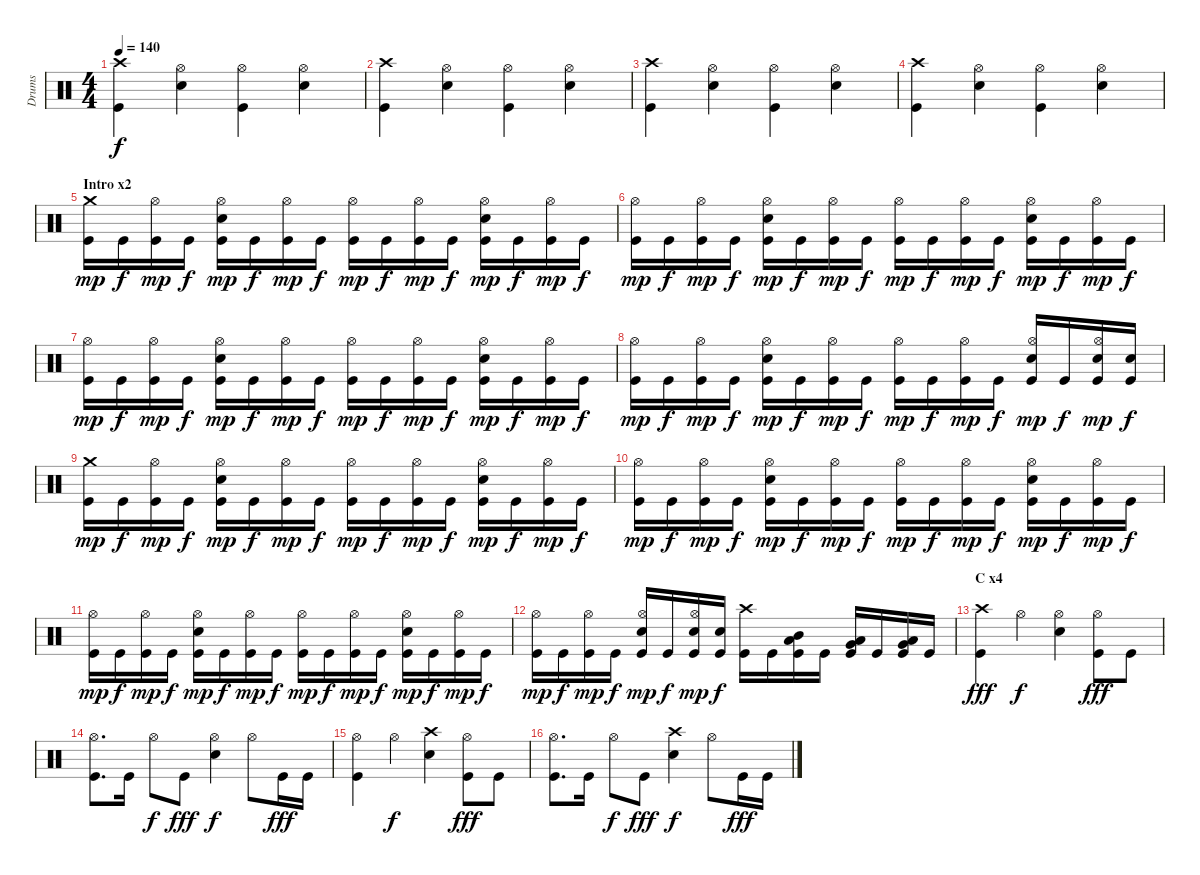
\track ("Drums" "Drums") {instrument percussion}
\staff {score}
\articulation defaults
\ts (4 4)
\tempo 140
\clef neutral
\ks c
("Crash high (hit)" "Kick (hit)").4{dy f} ("Hi-Hat (open)" "Snare (hit) 2").4 ("Hi-Hat (open)" "Kick (hit)").4 ("Hi-Hat (open)" "Snare (hit) 2").4 |
("Crash high (hit)" "Kick (hit)").4 ("Hi-Hat (open)" "Snare (hit) 2").4 ("Hi-Hat (open)" "Kick (hit)").4 ("Hi-Hat (open)" "Snare (hit) 2").4 |
("Crash high (hit)" "Kick (hit)").4 ("Hi-Hat (open)" "Snare (hit) 2").4 ("Hi-Hat (open)" "Kick (hit)").4 ("Hi-Hat (open)" "Snare (hit) 2").4 |
("Crash high (hit)" "Kick (hit)").4 ("Hi-Hat (open)" "Snare (hit) 2").4 ("Hi-Hat (open)" "Kick (hit)").4 ("Hi-Hat (open)" "Snare (hit) 2").4 |
\section ("" "Intro x2")
("Crash medium (hit)" "Kick (hit)").16{dy mp} "Kick (hit)".16{dy f} ("Hi-Hat (open)" "Kick (hit)").16{dy mp} "Kick (hit)".16{dy f} ("Hi-Hat (open)" "Snare (hit) 2" "Kick (hit)").16{dy mp} "Kick (hit)".16{dy f} ("Hi-Hat (open)" "Kick (hit)").16{dy mp} "Kick (hit)".16{dy f} ("Hi-Hat (open)" "Kick (hit)").16{dy mp} "Kick (hit)".16{dy f} ("Hi-Hat (open)" "Kick (hit)").16{dy mp} "Kick (hit)".16{dy f} ("Hi-Hat (open)" "Snare (hit) 2" "Kick (hit)").16{dy mp} "Kick (hit)".16{dy f} ("Hi-Hat (open)" "Kick (hit)").16{dy mp} "Kick (hit)".16{dy f} |
("Hi-Hat (open)" "Kick (hit)").16{dy mp} "Kick (hit)".16{dy f} ("Hi-Hat (open)" "Kick (hit)").16{dy mp} "Kick (hit)".16{dy f} ("Hi-Hat (open)" "Snare (hit) 2" "Kick (hit)").16{dy mp} "Kick (hit)".16{dy f} ("Hi-Hat (open)" "Kick (hit)").16{dy mp} "Kick (hit)".16{dy f} ("Hi-Hat (open)" "Kick (hit)").16{dy mp} "Kick (hit)".16{dy f} ("Hi-Hat (open)" "Kick (hit)").16{dy mp} "Kick (hit)".16{dy f} ("Hi-Hat (open)" "Snare (hit) 2" "Kick (hit)").16{dy mp} "Kick (hit)".16{dy f} ("Hi-Hat (open)" "Kick (hit)").16{dy mp} "Kick (hit)".16{dy f} |
("Hi-Hat (open)" "Kick (hit)").16{dy mp} "Kick (hit)".16{dy f} ("Hi-Hat (open)" "Kick (hit)").16{dy mp} "Kick (hit)".16{dy f} ("Hi-Hat (open)" "Snare (hit) 2" "Kick (hit)").16{dy mp} "Kick (hit)".16{dy f} ("Hi-Hat (open)" "Kick (hit)").16{dy mp} "Kick (hit)".16{dy f} ("Hi-Hat (open)" "Kick (hit)").16{dy mp} "Kick (hit)".16{dy f} ("Hi-Hat (open)" "Kick (hit)").16{dy mp} "Kick (hit)".16{dy f} ("Hi-Hat (open)" "Snare (hit) 2" "Kick (hit)").16{dy mp} "Kick (hit)".16{dy f} ("Hi-Hat (open)" "Kick (hit)").16{dy mp} "Kick (hit)".16{dy f} |
("Hi-Hat (open)" "Kick (hit)").16{dy mp} "Kick (hit)".16{dy f} ("Hi-Hat (open)" "Kick (hit)").16{dy mp} "Kick (hit)".16{dy f} ("Hi-Hat (open)" "Snare (hit) 2" "Kick (hit)").16{dy mp} "Kick (hit)".16{dy f} ("Hi-Hat (open)" "Kick (hit)").16{dy mp} "Kick (hit)".16{dy f} ("Hi-Hat (open)" "Kick (hit)").16{dy mp} "Kick (hit)".16{dy f} ("Hi-Hat (open)" "Kick (hit)").16{dy mp} "Kick (hit)".16{dy f} ("Hi-Hat (open)" "Snare (hit) 2" "Kick (hit)").16{dy mp} "Kick (hit)".16{dy f} ("Hi-Hat (open)" "Snare (hit) 2" "Kick (hit)").16{dy mp} ("Snare (hit) 2" "Kick (hit)").16{dy f} |
("Crash medium (hit)" "Kick (hit)").16{dy mp} "Kick (hit)".16{dy f} ("Hi-Hat (open)" "Kick (hit)").16{dy mp} "Kick (hit)".16{dy f} ("Hi-Hat (open)" "Snare (hit) 2" "Kick (hit)").16{dy mp} "Kick (hit)".16{dy f} ("Hi-Hat (open)" "Kick (hit)").16{dy mp} "Kick (hit)".16{dy f} ("Hi-Hat (open)" "Kick (hit)").16{dy mp} "Kick (hit)".16{dy f} ("Hi-Hat (open)" "Kick (hit)").16{dy mp} "Kick (hit)".16{dy f} ("Hi-Hat (open)" "Snare (hit) 2" "Kick (hit)").16{dy mp} "Kick (hit)".16{dy f} ("Hi-Hat (open)" "Kick (hit)").16{dy mp} "Kick (hit)".16{dy f} |
("Hi-Hat (open)" "Kick (hit)").16{dy mp} "Kick (hit)".16{dy f} ("Hi-Hat (open)" "Kick (hit)").16{dy mp} "Kick (hit)".16{dy f} ("Hi-Hat (open)" "Snare (hit) 2" "Kick (hit)").16{dy mp} "Kick (hit)".16{dy f} ("Hi-Hat (open)" "Kick (hit)").16{dy mp} "Kick (hit)".16{dy f} ("Hi-Hat (open)" "Kick (hit)").16{dy mp} "Kick (hit)".16{dy f} ("Hi-Hat (open)" "Kick (hit)").16{dy mp} "Kick (hit)".16{dy f} ("Hi-Hat (open)" "Snare (hit) 2" "Kick (hit)").16{dy mp} "Kick (hit)".16{dy f} ("Hi-Hat (open)" "Kick (hit)").16{dy mp} "Kick (hit)".16{dy f} |
("Hi-Hat (open)" "Kick (hit)").16{dy mp} "Kick (hit)".16{dy f} ("Hi-Hat (open)" "Kick (hit)").16{dy mp} "Kick (hit)".16{dy f} ("Hi-Hat (open)" "Snare (hit) 2" "Kick (hit)").16{dy mp} "Kick (hit)".16{dy f} ("Hi-Hat (open)" "Kick (hit)").16{dy mp} "Kick (hit)".16{dy f} ("Hi-Hat (open)" "Kick (hit)").16{dy mp} "Kick (hit)".16{dy f} ("Hi-Hat (open)" "Kick (hit)").16{dy mp} "Kick (hit)".16{dy f} ("Hi-Hat (open)" "Snare (hit) 2" "Kick (hit)").16{dy mp} "Kick (hit)".16{dy f} ("Hi-Hat (open)" "Kick (hit)").16{dy mp} "Kick (hit)".16{dy f} |
("Hi-Hat (open)" "Kick (hit)").16{dy mp} "Kick (hit)".16{dy f} ("Hi-Hat (open)" "Kick (hit)").16{dy mp} "Kick (hit)".16{dy f} ("Hi-Hat (open)" "Snare (hit) 2" "Kick (hit)").16{dy mp} "Kick (hit)".16{dy f} ("Hi-Hat (open)" "Snare (hit) 2" "Kick (hit)").16{dy mp} ("Snare (hit) 2" "Kick (hit)").16{dy f} ("Crash high (hit)" "Kick (hit)").16 "Kick (hit)".16 ("Mid Tom (hit)" "Low Tom (hit)" "Kick (hit)").16 "Kick (hit)".16 ("Low Tom (hit)" "Very Low Tom (hit)" "Kick (hit)").16 "Kick (hit)".16 ("Very Low Tom (hit)" "Low Floor Tom (hit)" "Kick (hit)").16 "Kick (hit)".16 |
\section ("" "C x4")
("Crash high (hit)" "Kick (hit)").4{dy fff} "Hi-Hat (open)".4{dy f} ("Hi-Hat (open)" "Snare (hit) 2").4 ("Hi-Hat (open)" "Kick (hit)").8{dy fff} "Kick (hit)".8 |
("Hi-Hat (open)" "Kick (hit)").8{d} "Kick (hit)".16 "Hi-Hat (open)".8{dy f} "Kick (hit)".8{dy fff} ("Hi-Hat (open)" "Snare (hit) 2").4{dy f} "Hi-Hat (open)".8 "Kick (hit)".16{dy fff} "Kick (hit)".16 |
("Hi-Hat (open)" "Kick (hit)").4 "Hi-Hat (open)".4{dy f} ("Crash high (hit)" "Snare (hit) 2").4 ("Hi-Hat (open)" "Kick (hit)").8{dy fff} "Kick (hit)".8 |
("Hi-Hat (open)" "Kick (hit)").8{d} "Kick (hit)".16 "Hi-Hat (open)".8{dy f} "Kick (hit)".8{dy fff} ("Crash high (hit)" "Snare (hit) 2").4{dy f} "Hi-Hat (open)".8 "Kick (hit)".16{dy fff} "Kick (hit)".16
